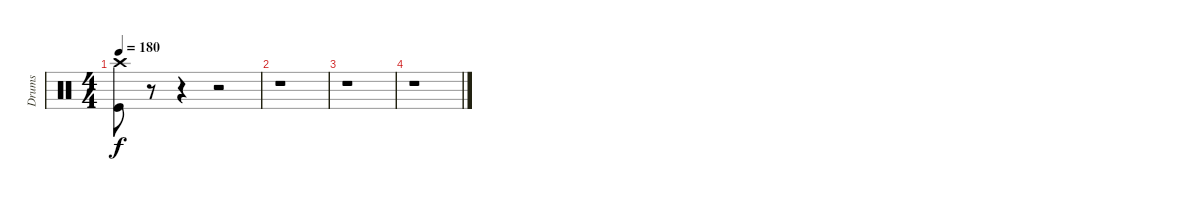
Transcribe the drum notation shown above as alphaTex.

\track ("Drums" "Drums") {instrument percussion}
\staff {score}
\articulation defaults
\ts (4 4)
\tempo 180
\clef neutral
\ks c
("Crash high (hit)" "Kick (hit)").8{dy f} r.8 r.4 r.2 |
r.1 |
r.1 |
r.1
